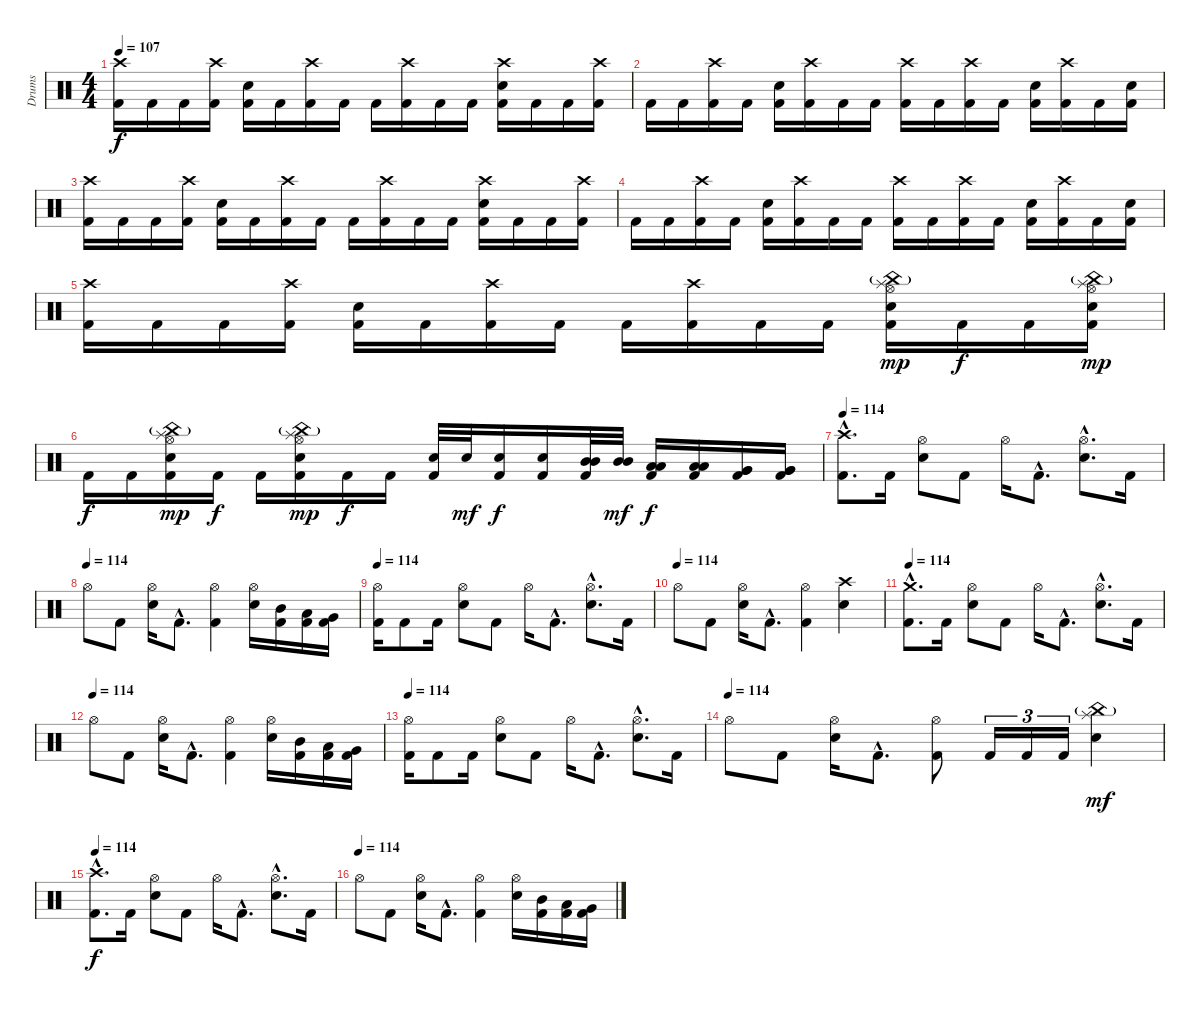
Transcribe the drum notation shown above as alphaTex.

\track ("Drums" "Drums") {instrument percussion}
\staff {score}
\articulation defaults
\ts (4 4)
\tempo 107
\clef neutral
\ks c
("Kick (hit) 2" "Crash high (hit)").16{dy f} "Kick (hit) 2".16 "Kick (hit) 2".16 ("Kick (hit) 2" "Crash high (hit)").16 ("Kick (hit) 2" "Electric Snare (hit)").16 "Kick (hit) 2".16 ("Kick (hit) 2" "Crash high (hit)").16 "Kick (hit) 2".16 "Kick (hit) 2".16 ("Kick (hit) 2" "Crash high (hit)").16 "Kick (hit) 2".16 "Kick (hit) 2".16 ("Kick (hit) 2" "Electric Snare (hit)" "Crash high (hit)").16 "Kick (hit) 2".16 "Kick (hit) 2".16 ("Kick (hit) 2" "Crash high (hit)").16 |
"Kick (hit) 2".16 "Kick (hit) 2".16 ("Kick (hit) 2" "Crash high (hit)").16 "Kick (hit) 2".16 ("Kick (hit) 2" "Electric Snare (hit)").16 ("Kick (hit) 2" "Crash high (hit)").16 "Kick (hit) 2".16 "Kick (hit) 2".16 ("Kick (hit) 2" "Crash high (hit)").16 "Kick (hit) 2".16 ("Kick (hit) 2" "Crash high (hit)").16 "Kick (hit) 2".16 ("Kick (hit) 2" "Electric Snare (hit)").16 ("Kick (hit) 2" "Crash high (hit)").16 "Kick (hit) 2".16 ("Kick (hit) 2" "Electric Snare (hit)").16 |
("Kick (hit) 2" "Crash high (hit)").16 "Kick (hit) 2".16 "Kick (hit) 2".16 ("Kick (hit) 2" "Crash high (hit)").16 ("Kick (hit) 2" "Electric Snare (hit)").16 "Kick (hit) 2".16 ("Kick (hit) 2" "Crash high (hit)").16 "Kick (hit) 2".16 "Kick (hit) 2".16 ("Kick (hit) 2" "Crash high (hit)").16 "Kick (hit) 2".16 "Kick (hit) 2".16 ("Kick (hit) 2" "Electric Snare (hit)" "Crash high (hit)").16 "Kick (hit) 2".16 "Kick (hit) 2".16 ("Kick (hit) 2" "Crash high (hit)").16 |
"Kick (hit) 2".16 "Kick (hit) 2".16 ("Kick (hit) 2" "Crash high (hit)").16 "Kick (hit) 2".16 ("Kick (hit) 2" "Electric Snare (hit)").16 ("Kick (hit) 2" "Crash high (hit)").16 "Kick (hit) 2".16 "Kick (hit) 2".16 ("Kick (hit) 2" "Crash high (hit)").16 "Kick (hit) 2".16 ("Kick (hit) 2" "Crash high (hit)").16 "Kick (hit) 2".16 ("Kick (hit) 2" "Electric Snare (hit)").16 ("Kick (hit) 2" "Crash high (hit)").16 "Kick (hit) 2".16 ("Kick (hit) 2" "Electric Snare (hit)").16 |
("Kick (hit) 2" "Crash high (hit)").16 "Kick (hit) 2".16 "Kick (hit) 2".16 ("Kick (hit) 2" "Crash high (hit)").16 ("Kick (hit) 2" "Electric Snare (hit)").16 "Kick (hit) 2".16 ("Kick (hit) 2" "Crash high (hit)").16 "Kick (hit) 2".16 "Kick (hit) 2".16 ("Kick (hit) 2" "Crash high (hit)").16 "Kick (hit) 2".16 "Kick (hit) 2".16 ("Kick (hit) 2" "Electric Snare (hit)" "Hi-Hat (open)" "China (hit)"{g} "Splash (hit)").16{dy mp} "Kick (hit) 2".16{dy f} "Kick (hit) 2".16 ("Kick (hit) 2" "Electric Snare (hit)" "Hi-Hat (open)" "China (hit)"{g} "Splash (hit)").16{dy mp} |
"Kick (hit) 2".16{dy f} "Kick (hit) 2".16 ("Kick (hit) 2" "Electric Snare (hit)" "Hi-Hat (open)" "China (hit)"{g} "Splash (hit)").16{dy mp} "Kick (hit) 2".16{dy f} "Kick (hit) 2".16 ("Kick (hit) 2" "Electric Snare (hit)" "Hi-Hat (open)" "China (hit)"{g} "Splash (hit)").16{dy mp} "Kick (hit) 2".16{dy f} "Kick (hit) 2".16 ("Kick (hit) 2" "Electric Snare (hit)").32 "Electric Snare (hit)".32{dy mf} ("Kick (hit) 2" "Electric Snare (hit)").16{dy f} ("Kick (hit) 2" "Electric Snare (hit)").16 ("Kick (hit) 2" "Mid Tom (hit)" "Mid Tom (hit)").32 ("Mid Tom (hit)" "Mid Tom (hit)").32{dy mf} ("Kick (hit) 2" "Low Tom (hit)" "Low Tom (hit)").16{dy f} ("Kick (hit) 2" "Low Tom (hit)" "Low Tom (hit)").16 ("Kick (hit) 2" "Very Low Tom (hit)" "Very Low Tom (hit)").16 ("Kick (hit) 2" "Very Low Tom (hit)" "Very Low Tom (hit)").16 |
\tempo 114
("Kick (hit) 2"{hac} "Crash high (hit)"{hac}).8{d} "Kick (hit) 2".16 ("Electric Snare (hit)" "Hi-Hat (open)").8 "Kick (hit) 2".8 "Hi-Hat (open)".16 "Kick (hit) 2"{hac}.8{d} ("Electric Snare (hit)"{hac} "Hi-Hat (open)"{hac}).8{d} "Kick (hit) 2".16 |
\tempo (114)
"Hi-Hat (open)".8 "Kick (hit) 2".8 ("Electric Snare (hit)" "Hi-Hat (open)").16 "Kick (hit) 2"{hac}.8{d} ("Kick (hit) 2" "Hi-Hat (open)").4 ("Electric Snare (hit)" "Hi-Hat (open)").16 ("Kick (hit) 2" "Mid Tom (hit)").16 ("Kick (hit) 2" "Low Tom (hit)").16 ("Kick (hit) 2" "Very Low Tom (hit)").16 |
\tempo 114
("Kick (hit) 2" "Hi-Hat (open)").16 "Kick (hit) 2".8 "Kick (hit) 2".16 ("Electric Snare (hit)" "Hi-Hat (open)").8 "Kick (hit) 2".8 "Hi-Hat (open)".16 "Kick (hit) 2"{hac}.8{d} ("Electric Snare (hit)"{hac} "Hi-Hat (open)"{hac}).8{d} "Kick (hit) 2".16 |
\tempo (114)
"Hi-Hat (open)".8 "Kick (hit) 2".8 ("Electric Snare (hit)" "Hi-Hat (open)").16 "Kick (hit) 2"{hac}.8{d} ("Kick (hit) 2" "Hi-Hat (open)").4 ("Electric Snare (hit)" "Crash high (hit)").4 |
\tempo 110
\tempo 114
("Kick (hit) 2"{hac} "Crash medium (hit)"{hac}).8{d} "Kick (hit) 2".16 ("Electric Snare (hit)" "Hi-Hat (open)").8 "Kick (hit) 2".8 "Hi-Hat (open)".16 "Kick (hit) 2"{hac}.8{d} ("Electric Snare (hit)"{hac} "Hi-Hat (open)"{hac}).8{d} "Kick (hit) 2".16 |
\tempo (114)
"Hi-Hat (open)".8 "Kick (hit) 2".8 ("Electric Snare (hit)" "Hi-Hat (open)").16 "Kick (hit) 2"{hac}.8{d} ("Kick (hit) 2" "Hi-Hat (open)").4 ("Electric Snare (hit)" "Hi-Hat (open)").16 ("Kick (hit) 2" "Mid Tom (hit)").16 ("Kick (hit) 2" "Low Tom (hit)").16 ("Kick (hit) 2" "Very Low Tom (hit)").16 |
\tempo 114
("Kick (hit) 2" "Hi-Hat (open)").16 "Kick (hit) 2".8 "Kick (hit) 2".16 ("Electric Snare (hit)" "Hi-Hat (open)").8 "Kick (hit) 2".8 "Hi-Hat (open)".16 "Kick (hit) 2"{hac}.8{d} ("Electric Snare (hit)"{hac} "Hi-Hat (open)"{hac}).8{d} "Kick (hit) 2".16 |
\tempo (114)
"Hi-Hat (open)".8 "Kick (hit) 2".8 ("Electric Snare (hit)" "Hi-Hat (open)").16 "Kick (hit) 2"{hac}.8{d} ("Kick (hit) 2" "Hi-Hat (open)").8 "Kick (hit) 2".16{tu (3 2)} "Kick (hit) 2".16{tu (3 2)} "Kick (hit) 2".16{tu (3 2)} ("Electric Snare (hit)" "Splash (hit)" "China (hit)"{g}).4{dy mf} |
\tempo 110
\tempo 114
("Kick (hit) 2"{hac} "Crash high (hit)"{hac}).8{d dy f} "Kick (hit) 2".16 ("Electric Snare (hit)" "Hi-Hat (open)").8 "Kick (hit) 2".8 "Hi-Hat (open)".16 "Kick (hit) 2"{hac}.8{d} ("Electric Snare (hit)"{hac} "Hi-Hat (open)"{hac}).8{d} "Kick (hit) 2".16 |
\tempo (114)
"Hi-Hat (open)".8 "Kick (hit) 2".8 ("Electric Snare (hit)" "Hi-Hat (open)").16 "Kick (hit) 2"{hac}.8{d} ("Kick (hit) 2" "Hi-Hat (open)").4 ("Electric Snare (hit)" "Hi-Hat (open)").16 ("Kick (hit) 2" "Mid Tom (hit)").16 ("Kick (hit) 2" "Low Tom (hit)").16 ("Kick (hit) 2" "Very Low Tom (hit)").16
